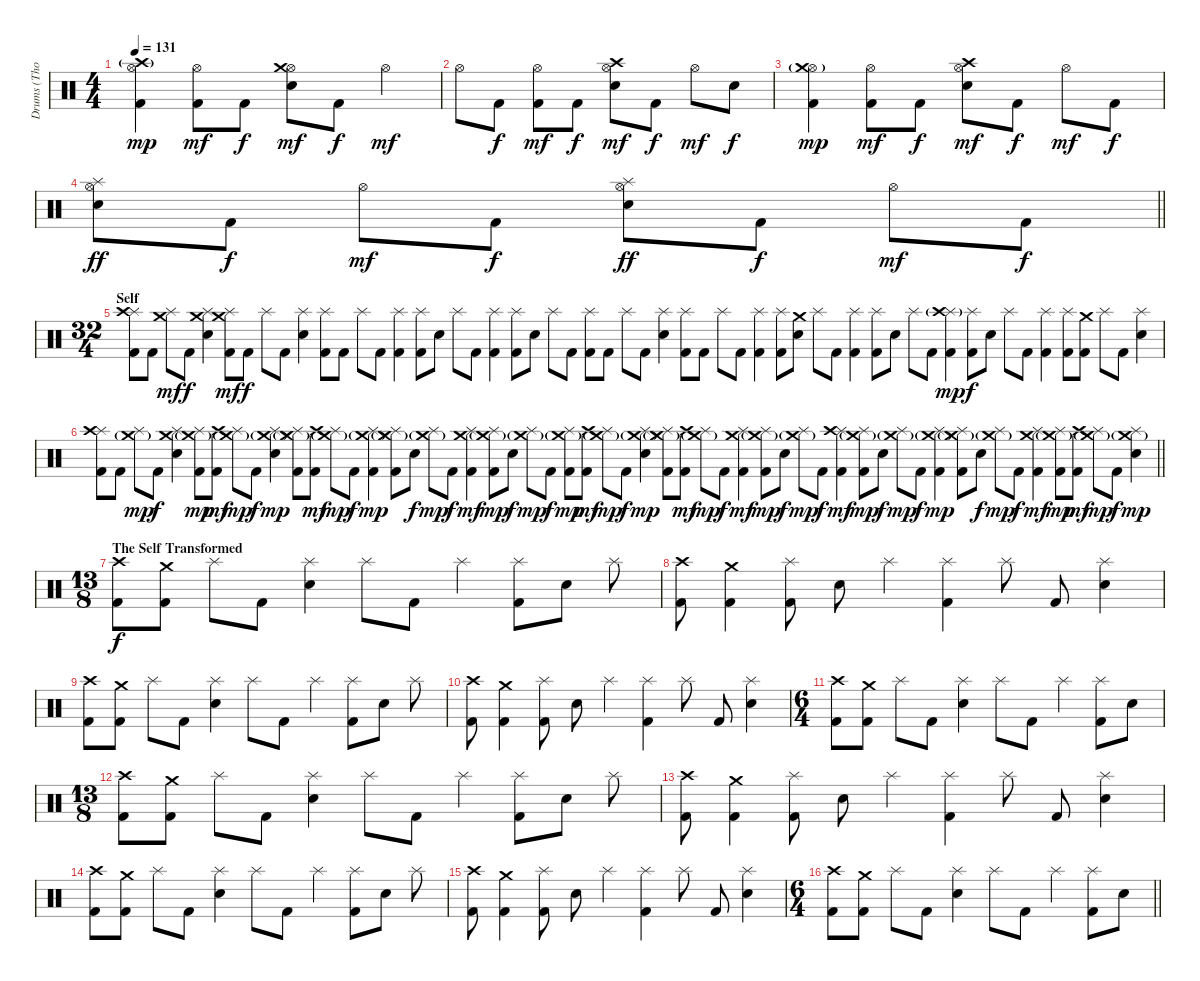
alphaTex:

\track ("Drums (Thomas Haake)" "Drums (Tho") {instrument percussion}
\staff {score}
\articulation defaults
\ts (4 4)
\tempo 131
\clef neutral
\ks c
("Hi-Hat (open)" "Crash high (hit)"{g} "Kick (hit) 2").4{dy mp} ("Hi-Hat (open)" "Kick (hit) 2").8{dy mf} "Kick (hit) 2".8{dy f} ("Hi-Hat (open)" "Crash medium (hit)" "Electric Snare (hit)").8{dy mf} "Kick (hit) 2".8{dy f} "Hi-Hat (open)".4{dy mf} |
"Hi-Hat (open)".8 "Kick (hit) 2".8{dy f} ("Hi-Hat (open)" "Kick (hit) 2").8{dy mf} "Kick (hit) 2".8{dy f} ("Hi-Hat (open)" "Crash high (hit)" "Electric Snare (hit)").8{dy mf} "Kick (hit) 2".8{dy f} "Hi-Hat (open)".8{dy mf} "Electric Snare (hit)".8{dy f} |
("Hi-Hat (open)" "Crash medium (hit)"{g} "Kick (hit) 2").4{dy mp} ("Hi-Hat (open)" "Kick (hit) 2").8{dy mf} "Kick (hit) 2".8{dy f} ("Hi-Hat (open)" "Crash high (hit)" "Electric Snare (hit)").8{dy mf} "Kick (hit) 2".8{dy f} "Hi-Hat (open)".8{dy mf} "Kick (hit) 2".8{dy f} |
\barLineRight lightlight
("Hi-Hat (open)" "Splash (hit)" "Electric Snare (hit)").8{dy ff} "Kick (hit) 2".8{dy f} "Hi-Hat (open)".8{dy mf} "Kick (hit) 2".8{dy f} ("Hi-Hat (open)" "Splash (hit)" "Electric Snare (hit)").8{dy ff} "Kick (hit) 2".8{dy f} "Hi-Hat (open)".8{dy mf} "Kick (hit) 2".8{dy f} |
\ts (32 4)
\section ("" "Self")
("Splash (hit)" "Crash high (hit)" "Kick (hit) 2").8 "Kick (hit) 2".8 ("Splash (hit)" "Crash medium (hit)").8{dy mf} "Kick (hit) 2".8{dy f} ("Splash (hit)" "Crash medium (hit)" "Electric Snare (hit)").4 ("Splash (hit)" "Crash medium (hit)" "Kick (hit) 2").8{dy mf} "Kick (hit) 2".8{dy f} "Splash (hit)".8 "Kick (hit) 2".8 ("Splash (hit)" "Electric Snare (hit)").4 ("Splash (hit)" "Kick (hit) 2").8 "Kick (hit) 2".8 "Splash (hit)".8 "Kick (hit) 2".8 ("Splash (hit)" "Kick (hit) 2").4 ("Splash (hit)" "Kick (hit) 2").8 "Electric Snare (hit)".8 "Splash (hit)".8 "Kick (hit) 2".8 ("Splash (hit)" "Kick (hit) 2").4 ("Splash (hit)" "Kick (hit) 2").8 "Electric Snare (hit)".8 "Splash (hit)".8 "Kick (hit) 2".8 ("Splash (hit)" "Kick (hit) 2").8 "Kick (hit) 2".8 "Splash (hit)".8 "Kick (hit) 2".8 ("Splash (hit)" "Electric Snare (hit)").4 ("Splash (hit)" "Kick (hit) 2").8 "Kick (hit) 2".8 "Splash (hit)".8 "Kick (hit) 2".8 ("Splash (hit)" "Kick (hit) 2").4 ("Splash (hit)" "Kick (hit) 2").8 ("Crash medium (hit)" "Electric Snare (hit)").8 "Splash (hit)".8 "Kick (hit) 2".8 ("Splash (hit)" "Kick (hit) 2").4 ("Splash (hit)" "Kick (hit) 2").8 "Electric Snare (hit)".8 "Splash (hit)".8 "Kick (hit) 2".8 ("Splash (hit)" "Crash high (hit)"{g} "Kick (hit) 2").4{dy mp} ("Splash (hit)" "Kick (hit) 2").8{dy f} "Electric Snare (hit)".8 "Splash (hit)".8 "Kick (hit) 2".8 ("Splash (hit)" "Kick (hit) 2").4 ("Splash (hit)" "Kick (hit) 2").8 ("Crash medium (hit)" "Kick (hit) 2").8 "Splash (hit)".8 "Kick (hit) 2".8 ("Splash (hit)" "Electric Snare (hit)").4 |
\barLineRight lightlight
("Splash (hit)" "Crash high (hit)" "Kick (hit) 2").8 "Kick (hit) 2".8 ("Splash (hit)" "Crash medium (hit)"{g}).8{dy mp} "Kick (hit) 2".8{dy f} ("Splash (hit)" "Crash medium (hit)" "Electric Snare (hit)").4 ("Splash (hit)" "Crash medium (hit)"{g} "Kick (hit) 2").8{dy mp} ("Crash high (hit)" "Kick (hit) 2").8{dy mf} ("Splash (hit)" "Crash medium (hit)"{g}).8{dy mp} "Kick (hit) 2".8{dy f} ("Splash (hit)" "Crash medium (hit)"{g} "Electric Snare (hit)").4{dy mp} ("Splash (hit)" "Crash medium (hit)"{g} "Kick (hit) 2").8 ("Crash high (hit)" "Kick (hit) 2").8{dy mf} ("Splash (hit)" "Crash medium (hit)"{g}).8{dy mp} "Kick (hit) 2".8{dy f} ("Splash (hit)" "Crash medium (hit)"{g} "Kick (hit) 2").4{dy mp} ("Splash (hit)" "Crash medium (hit)"{g} "Kick (hit) 2").8 "Electric Snare (hit)".8{dy f} ("Splash (hit)" "Crash medium (hit)"{g}).8{dy mp} "Kick (hit) 2".8{dy f} ("Splash (hit)" "Crash medium (hit)" "Kick (hit) 2").4{dy mf} ("Splash (hit)" "Crash medium (hit)"{g} "Kick (hit) 2").8{dy mp} "Electric Snare (hit)".8{dy f} ("Splash (hit)" "Crash medium (hit)"{g}).8{dy mp} "Kick (hit) 2".8{dy f} ("Splash (hit)" "Crash medium (hit)"{g} "Kick (hit) 2").8{dy mp} ("Crash high (hit)" "Kick (hit) 2").8{dy mf} ("Splash (hit)" "Crash medium (hit)"{g}).8{dy mp} "Kick (hit) 2".8{dy f} ("Splash (hit)" "Crash medium (hit)"{g} "Electric Snare (hit)").4{dy mp} ("Splash (hit)" "Crash medium (hit)"{g} "Kick (hit) 2").8 ("Crash high (hit)" "Kick (hit) 2").8{dy mf} ("Splash (hit)" "Crash medium (hit)"{g}).8{dy mp} "Kick (hit) 2".8{dy f} ("Splash (hit)" "Crash medium (hit)" "Kick (hit) 2").4{dy mf} ("Splash (hit)" "Crash medium (hit)"{g} "Kick (hit) 2").8{dy mp} "Electric Snare (hit)".8{dy f} ("Splash (hit)" "Crash medium (hit)"{g}).8{dy mp} "Kick (hit) 2".8{dy f} ("Splash (hit)" "Crash high (hit)" "Kick (hit) 2").4{dy mf} ("Splash (hit)" "Crash medium (hit)"{g} "Kick (hit) 2").8{dy mp} "Electric Snare (hit)".8{dy f} ("Splash (hit)" "Crash medium (hit)"{g}).8{dy mp} "Kick (hit) 2".8{dy f} ("Splash (hit)" "Crash medium (hit)"{g} "Kick (hit) 2").4{dy mp} ("Splash (hit)" "Crash medium (hit)"{g} "Kick (hit) 2").8 "Electric Snare (hit)".8{dy f} ("Splash (hit)" "Crash medium (hit)"{g}).8{dy mp} "Kick (hit) 2".8{dy f} ("Splash (hit)" "Crash medium (hit)" "Kick (hit) 2").4{dy mf} ("Splash (hit)" "Crash medium (hit)"{g} "Kick (hit) 2").8{dy mp} ("Crash high (hit)" "Kick (hit) 2").8{dy mf} ("Splash (hit)" "Crash medium (hit)"{g}).8{dy mp} "Kick (hit) 2".8{dy f} ("Splash (hit)" "Crash medium (hit)"{g} "Electric Snare (hit)").4{dy mp} |
\ts (13 8)
\section ("" "The Self Transformed")
("Crash high (hit)" "Kick (hit) 2").8{dy f} ("Crash medium (hit)" "Kick (hit) 2").8 "Splash (hit)".8 "Kick (hit) 2".8 ("Splash (hit)" "Electric Snare (hit)").4 "Splash (hit)".8 "Kick (hit) 2".8 "Splash (hit)".4 ("Splash (hit)" "Kick (hit) 2").8 "Electric Snare (hit)".8 "Splash (hit)".8 |
("Crash high (hit)" "Kick (hit) 2").8 ("Crash medium (hit)" "Kick (hit) 2").4 ("Splash (hit)" "Kick (hit) 2").8 "Electric Snare (hit)".8 "Splash (hit)".4 ("Splash (hit)" "Kick (hit) 2").4 "Splash (hit)".8 "Kick (hit) 2".8 ("Splash (hit)" "Electric Snare (hit)").4 |
("Crash high (hit)" "Kick (hit) 2").8 ("Crash medium (hit)" "Kick (hit) 2").8 "Splash (hit)".8 "Kick (hit) 2".8 ("Splash (hit)" "Electric Snare (hit)").4 "Splash (hit)".8 "Kick (hit) 2".8 "Splash (hit)".4 ("Splash (hit)" "Kick (hit) 2").8 "Electric Snare (hit)".8 "Splash (hit)".8 |
("Crash high (hit)" "Kick (hit) 2").8 ("Crash medium (hit)" "Kick (hit) 2").4 ("Splash (hit)" "Kick (hit) 2").8 "Electric Snare (hit)".8 "Splash (hit)".4 ("Splash (hit)" "Kick (hit) 2").4 "Splash (hit)".8 "Kick (hit) 2".8 ("Splash (hit)" "Electric Snare (hit)").4 |
\ts (6 4)
("Crash high (hit)" "Kick (hit) 2").8 ("Crash medium (hit)" "Kick (hit) 2").8 "Splash (hit)".8 "Kick (hit) 2".8 ("Splash (hit)" "Electric Snare (hit)").4 "Splash (hit)".8 "Kick (hit) 2".8 "Splash (hit)".4 ("Splash (hit)" "Kick (hit) 2").8 "Electric Snare (hit)".8 |
\ts (13 8)
("Crash high (hit)" "Kick (hit) 2").8 ("Crash medium (hit)" "Kick (hit) 2").8 "Splash (hit)".8 "Kick (hit) 2".8 ("Splash (hit)" "Electric Snare (hit)").4 "Splash (hit)".8 "Kick (hit) 2".8 "Splash (hit)".4 ("Splash (hit)" "Kick (hit) 2").8 "Electric Snare (hit)".8 "Splash (hit)".8 |
("Crash high (hit)" "Kick (hit) 2").8 ("Crash medium (hit)" "Kick (hit) 2").4 ("Splash (hit)" "Kick (hit) 2").8 "Electric Snare (hit)".8 "Splash (hit)".4 ("Splash (hit)" "Kick (hit) 2").4 "Splash (hit)".8 "Kick (hit) 2".8 ("Splash (hit)" "Electric Snare (hit)").4 |
("Crash high (hit)" "Kick (hit) 2").8 ("Crash medium (hit)" "Kick (hit) 2").8 "Splash (hit)".8 "Kick (hit) 2".8 ("Splash (hit)" "Electric Snare (hit)").4 "Splash (hit)".8 "Kick (hit) 2".8 "Splash (hit)".4 ("Splash (hit)" "Kick (hit) 2").8 "Electric Snare (hit)".8 "Splash (hit)".8 |
("Crash high (hit)" "Kick (hit) 2").8 ("Crash medium (hit)" "Kick (hit) 2").4 ("Splash (hit)" "Kick (hit) 2").8 "Electric Snare (hit)".8 "Splash (hit)".4 ("Splash (hit)" "Kick (hit) 2").4 "Splash (hit)".8 "Kick (hit) 2".8 ("Splash (hit)" "Electric Snare (hit)").4 |
\ts (6 4)
\barLineRight lightlight
("Crash high (hit)" "Kick (hit) 2").8 ("Crash medium (hit)" "Kick (hit) 2").8 "Splash (hit)".8 "Kick (hit) 2".8 ("Splash (hit)" "Electric Snare (hit)").4 "Splash (hit)".8 "Kick (hit) 2".8 "Splash (hit)".4 ("Splash (hit)" "Kick (hit) 2").8 "Electric Snare (hit)".8
